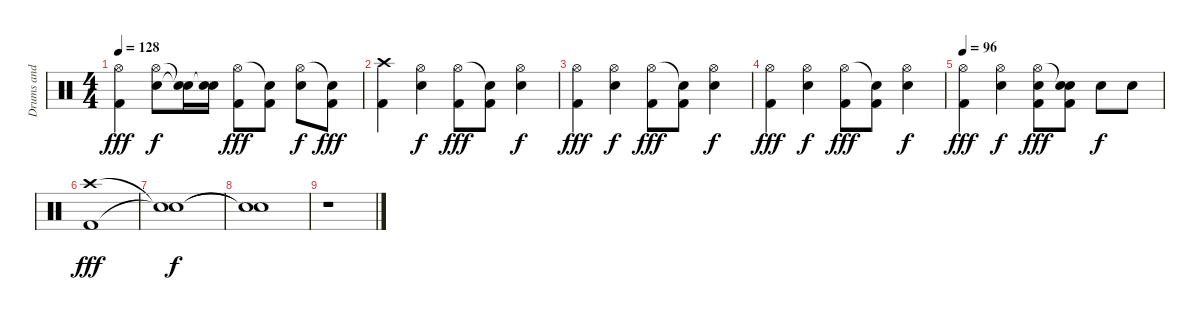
\track ("Drums and Percussion" "Drums and ") {instrument percussion}
\staff {score}
\articulation defaults
\ts (4 4)
\tempo 128
\clef neutral
\ks c
("Hi-Hat (open)" "Kick (hit) 2").4{dy fff} ("Hi-Hat (open)" "Electric Snare (hit)").8{dy f} ("Snare (hit)"{t} "Snare (hit)"{t}).16 ("Snare (hit)"{t} "Electric Snare (hit)").16 ("Hi-Hat (open)" "Kick (hit) 2").8{dy fff} ("Snare (hit)"{t} "Kick (hit) 2").8 ("Hi-Hat (open)" "Electric Snare (hit)").8{dy f} ("Snare (hit)"{t} "Kick (hit) 2").8{dy fff} |
("Crash high (hit)" "Kick (hit) 2").4 ("Hi-Hat (open)" "Electric Snare (hit)").4{dy f} ("Hi-Hat (open)" "Kick (hit) 2").8{dy fff} ("Snare (hit)"{t} "Kick (hit) 2").8 ("Hi-Hat (open)" "Electric Snare (hit)").4{dy f} |
("Hi-Hat (open)" "Kick (hit) 2").4{dy fff} ("Hi-Hat (open)" "Electric Snare (hit)").4{dy f} ("Hi-Hat (open)" "Kick (hit) 2").8{dy fff} ("Snare (hit)"{t} "Kick (hit) 2").8 ("Hi-Hat (open)" "Electric Snare (hit)").4{dy f} |
("Hi-Hat (open)" "Kick (hit) 2").4{dy fff} ("Hi-Hat (open)" "Electric Snare (hit)").4{dy f} ("Hi-Hat (open)" "Kick (hit) 2").8{dy fff} ("Snare (hit)"{t} "Kick (hit) 2").8 ("Hi-Hat (open)" "Electric Snare (hit)").4{dy f} |
\tempo 96
("Hi-Hat (open)" "Kick (hit) 2").4{dy fff} ("Hi-Hat (open)" "Electric Snare (hit)").4{dy f} ("Hi-Hat (open)" "Electric Snare (hit)" "Kick (hit) 2").8{dy fff} ("Snare (hit)"{t} "Electric Snare (hit)" "Kick (hit) 2").8 "Electric Snare (hit)".8{dy f} "Electric Snare (hit)".8 |
("Crash high (hit)" "Kick (hit) 2").1{dy fff} |
("Snare (hit)"{t} "Snare (hit)"{t}).1{dy f} |
("Snare (hit)"{t} "Snare (hit)"{t}).1 |
r.1
